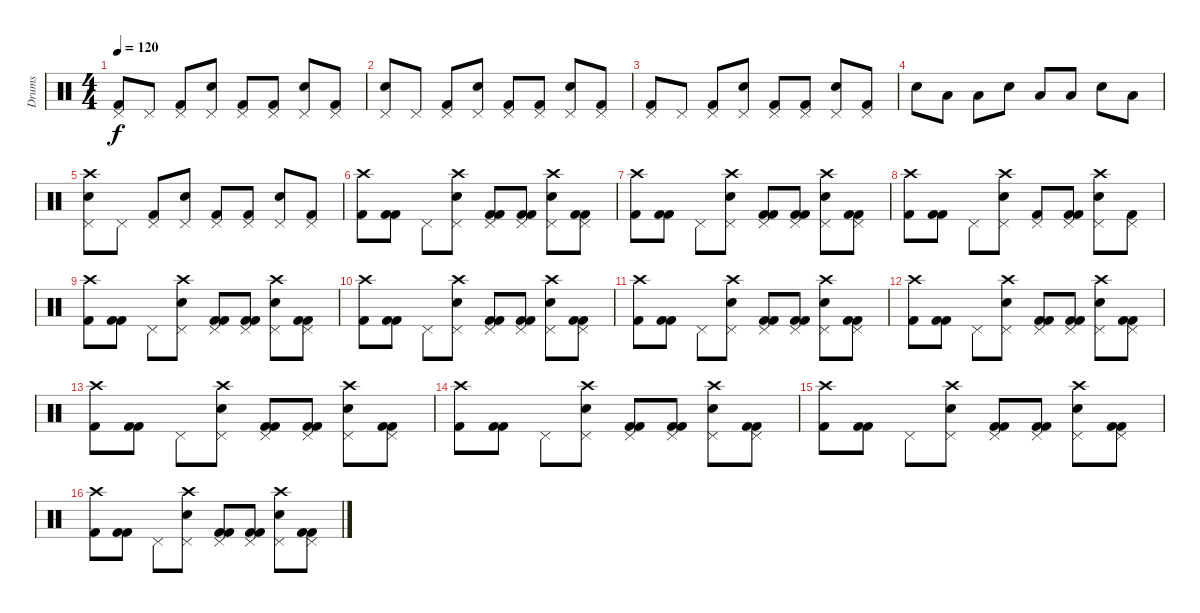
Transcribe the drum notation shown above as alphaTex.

\track ("Drums" "Drums") {instrument percussion}
\staff {score}
\articulation defaults
\ts (4 4)
\tempo 120
\clef neutral
\ks c
("Kick (hit) 2" "Pedal Hi-Hat (hit)").8{dy f} "Pedal Hi-Hat (hit)".8 ("Kick (hit) 2" "Pedal Hi-Hat (hit)").8 ("Snare (hit) 2" "Pedal Hi-Hat (hit)").8 ("Kick (hit) 2" "Pedal Hi-Hat (hit)").8 ("Kick (hit) 2" "Pedal Hi-Hat (hit)").8 ("Snare (hit) 2" "Pedal Hi-Hat (hit)").8 ("Kick (hit) 2" "Pedal Hi-Hat (hit)").8 |
("Snare (hit) 2" "Pedal Hi-Hat (hit)").8 "Pedal Hi-Hat (hit)".8 ("Kick (hit) 2" "Pedal Hi-Hat (hit)").8 ("Snare (hit) 2" "Pedal Hi-Hat (hit)").8 ("Kick (hit) 2" "Pedal Hi-Hat (hit)").8 ("Kick (hit) 2" "Pedal Hi-Hat (hit)").8 ("Snare (hit) 2" "Pedal Hi-Hat (hit)").8 ("Kick (hit) 2" "Pedal Hi-Hat (hit)").8 |
("Kick (hit) 2" "Pedal Hi-Hat (hit)").8 "Pedal Hi-Hat (hit)".8 ("Kick (hit) 2" "Pedal Hi-Hat (hit)").8 ("Snare (hit) 2" "Pedal Hi-Hat (hit)").8 ("Kick (hit) 2" "Pedal Hi-Hat (hit)").8 ("Kick (hit) 2" "Pedal Hi-Hat (hit)").8 ("Snare (hit) 2" "Pedal Hi-Hat (hit)").8 ("Kick (hit) 2" "Pedal Hi-Hat (hit)").8 |
"Snare (hit) 2".8 "Low Tom (hit)".8 "Low Tom (hit)".8 "Snare (hit) 2".8 "Low Tom (hit)".8 "Low Tom (hit)".8 "Snare (hit) 2".8 "Low Tom (hit)".8 |
("Crash high (hit)" "Snare (hit) 2" "Pedal Hi-Hat (hit)").8 "Pedal Hi-Hat (hit)".8 ("Kick (hit) 2" "Pedal Hi-Hat (hit)").8 ("Snare (hit) 2" "Pedal Hi-Hat (hit)").8 ("Kick (hit) 2" "Pedal Hi-Hat (hit)").8 ("Kick (hit) 2" "Pedal Hi-Hat (hit)").8 ("Snare (hit) 2" "Pedal Hi-Hat (hit)").8 ("Kick (hit) 2" "Pedal Hi-Hat (hit)").8 |
("Kick (hit) 2" "Crash high (hit)").8 ("Kick (hit) 2" "Kick (hit) 2").8 "Pedal Hi-Hat (hit)".8 ("Crash high (hit)" "Snare (hit) 2" "Pedal Hi-Hat (hit)").8 ("Kick (hit) 2" "Kick (hit) 2" "Pedal Hi-Hat (hit)").8 ("Kick (hit) 2" "Kick (hit) 2" "Pedal Hi-Hat (hit)").8 ("Crash high (hit)" "Snare (hit) 2" "Pedal Hi-Hat (hit)").8 ("Kick (hit) 2" "Kick (hit) 2" "Pedal Hi-Hat (hit)").8 |
("Kick (hit) 2" "Crash high (hit)").8 ("Kick (hit) 2" "Kick (hit) 2").8 "Pedal Hi-Hat (hit)".8 ("Crash high (hit)" "Snare (hit) 2" "Pedal Hi-Hat (hit)").8 ("Kick (hit) 2" "Kick (hit) 2" "Pedal Hi-Hat (hit)").8 ("Kick (hit) 2" "Kick (hit) 2" "Pedal Hi-Hat (hit)").8 ("Crash high (hit)" "Snare (hit) 2" "Pedal Hi-Hat (hit)").8 ("Kick (hit) 2" "Kick (hit) 2" "Pedal Hi-Hat (hit)").8 |
("Kick (hit) 2" "Crash high (hit)").8 ("Kick (hit) 2" "Kick (hit) 2").8 "Pedal Hi-Hat (hit)".8 ("Crash high (hit)" "Snare (hit) 2" "Pedal Hi-Hat (hit)").8 ("Kick (hit) 2" "Pedal Hi-Hat (hit)").8 ("Kick (hit) 2" "Kick (hit) 2" "Pedal Hi-Hat (hit)").8 ("Crash high (hit)" "Snare (hit) 2" "Pedal Hi-Hat (hit)").8 ("Kick (hit) 2" "Pedal Hi-Hat (hit)").8 |
("Kick (hit) 2" "Crash high (hit)").8 ("Kick (hit) 2" "Kick (hit) 2").8 "Pedal Hi-Hat (hit)".8 ("Crash high (hit)" "Snare (hit) 2" "Pedal Hi-Hat (hit)").8 ("Kick (hit) 2" "Kick (hit) 2" "Pedal Hi-Hat (hit)").8 ("Kick (hit) 2" "Kick (hit) 2" "Pedal Hi-Hat (hit)").8 ("Crash high (hit)" "Snare (hit) 2" "Pedal Hi-Hat (hit)").8 ("Kick (hit) 2" "Kick (hit) 2" "Pedal Hi-Hat (hit)").8 |
("Kick (hit) 2" "Crash high (hit)").8 ("Kick (hit) 2" "Kick (hit) 2").8 "Pedal Hi-Hat (hit)".8 ("Crash high (hit)" "Snare (hit) 2" "Pedal Hi-Hat (hit)").8 ("Kick (hit) 2" "Kick (hit) 2" "Pedal Hi-Hat (hit)").8 ("Kick (hit) 2" "Kick (hit) 2" "Pedal Hi-Hat (hit)").8 ("Crash high (hit)" "Snare (hit) 2" "Pedal Hi-Hat (hit)").8 ("Kick (hit) 2" "Kick (hit) 2" "Pedal Hi-Hat (hit)").8 |
("Kick (hit) 2" "Crash high (hit)").8 ("Kick (hit) 2" "Kick (hit) 2").8 "Pedal Hi-Hat (hit)".8 ("Crash high (hit)" "Snare (hit) 2" "Pedal Hi-Hat (hit)").8 ("Kick (hit) 2" "Kick (hit) 2" "Pedal Hi-Hat (hit)").8 ("Kick (hit) 2" "Kick (hit) 2" "Pedal Hi-Hat (hit)").8 ("Crash high (hit)" "Snare (hit) 2" "Pedal Hi-Hat (hit)").8 ("Kick (hit) 2" "Kick (hit) 2" "Pedal Hi-Hat (hit)").8 |
("Kick (hit) 2" "Crash high (hit)").8 ("Kick (hit) 2" "Kick (hit) 2").8 "Pedal Hi-Hat (hit)".8 ("Crash high (hit)" "Snare (hit) 2" "Pedal Hi-Hat (hit)").8 ("Kick (hit) 2" "Kick (hit) 2" "Pedal Hi-Hat (hit)").8 ("Kick (hit) 2" "Kick (hit) 2" "Pedal Hi-Hat (hit)").8 ("Crash high (hit)" "Snare (hit) 2" "Pedal Hi-Hat (hit)").8 ("Kick (hit) 2" "Kick (hit) 2" "Pedal Hi-Hat (hit)").8 |
("Kick (hit) 2" "Crash high (hit)").8 ("Kick (hit) 2" "Kick (hit) 2").8 "Pedal Hi-Hat (hit)".8 ("Crash high (hit)" "Snare (hit) 2" "Pedal Hi-Hat (hit)").8 ("Kick (hit) 2" "Kick (hit) 2" "Pedal Hi-Hat (hit)").8 ("Kick (hit) 2" "Kick (hit) 2" "Pedal Hi-Hat (hit)").8 ("Crash high (hit)" "Snare (hit) 2" "Pedal Hi-Hat (hit)").8 ("Kick (hit) 2" "Kick (hit) 2" "Pedal Hi-Hat (hit)").8 |
("Kick (hit) 2" "Crash high (hit)").8 ("Kick (hit) 2" "Kick (hit) 2").8 "Pedal Hi-Hat (hit)".8 ("Crash high (hit)" "Snare (hit) 2" "Pedal Hi-Hat (hit)").8 ("Kick (hit) 2" "Kick (hit) 2" "Pedal Hi-Hat (hit)").8 ("Kick (hit) 2" "Kick (hit) 2" "Pedal Hi-Hat (hit)").8 ("Crash high (hit)" "Snare (hit) 2" "Pedal Hi-Hat (hit)").8 ("Kick (hit) 2" "Kick (hit) 2" "Pedal Hi-Hat (hit)").8 |
("Kick (hit) 2" "Crash high (hit)").8 ("Kick (hit) 2" "Kick (hit) 2").8 "Pedal Hi-Hat (hit)".8 ("Crash high (hit)" "Snare (hit) 2" "Pedal Hi-Hat (hit)").8 ("Kick (hit) 2" "Kick (hit) 2" "Pedal Hi-Hat (hit)").8 ("Kick (hit) 2" "Kick (hit) 2" "Pedal Hi-Hat (hit)").8 ("Crash high (hit)" "Snare (hit) 2" "Pedal Hi-Hat (hit)").8 ("Kick (hit) 2" "Kick (hit) 2" "Pedal Hi-Hat (hit)").8 |
("Kick (hit) 2" "Crash high (hit)").8 ("Kick (hit) 2" "Kick (hit) 2").8 "Pedal Hi-Hat (hit)".8 ("Crash high (hit)" "Snare (hit) 2" "Pedal Hi-Hat (hit)").8 ("Kick (hit) 2" "Kick (hit) 2" "Pedal Hi-Hat (hit)").8 ("Kick (hit) 2" "Kick (hit) 2" "Pedal Hi-Hat (hit)").8 ("Crash high (hit)" "Snare (hit) 2" "Pedal Hi-Hat (hit)").8 ("Kick (hit) 2" "Kick (hit) 2" "Pedal Hi-Hat (hit)").8
